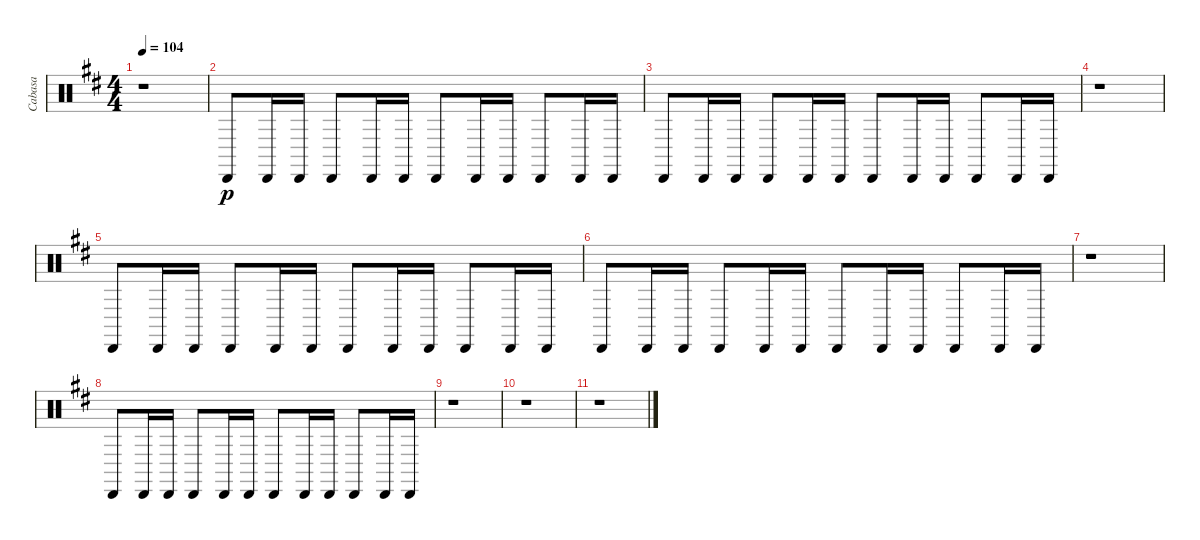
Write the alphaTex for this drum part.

\track ("Cabasa" "Cabasa") {instrument percussion}
\staff {score}
\articulation defaults
\ts (4 4)
\tempo 104
\clef neutral
\ks bminor
r.1{dy p} |
"Cabasa (hit)".8 "Cabasa (hit)".16 "Cabasa (hit)".16 "Cabasa (hit)".8 "Cabasa (hit)".16 "Cabasa (hit)".16 "Cabasa (hit)".8 "Cabasa (hit)".16 "Cabasa (hit)".16 "Cabasa (hit)".8 "Cabasa (hit)".16 "Cabasa (hit)".16 |
"Cabasa (hit)".8 "Cabasa (hit)".16 "Cabasa (hit)".16 "Cabasa (hit)".8 "Cabasa (hit)".16 "Cabasa (hit)".16 "Cabasa (hit)".8 "Cabasa (hit)".16 "Cabasa (hit)".16 "Cabasa (hit)".8 "Cabasa (hit)".16 "Cabasa (hit)".16 |
r.1 |
"Cabasa (hit)".8 "Cabasa (hit)".16 "Cabasa (hit)".16 "Cabasa (hit)".8 "Cabasa (hit)".16 "Cabasa (hit)".16 "Cabasa (hit)".8 "Cabasa (hit)".16 "Cabasa (hit)".16 "Cabasa (hit)".8 "Cabasa (hit)".16 "Cabasa (hit)".16 |
"Cabasa (hit)".8 "Cabasa (hit)".16 "Cabasa (hit)".16 "Cabasa (hit)".8 "Cabasa (hit)".16 "Cabasa (hit)".16 "Cabasa (hit)".8 "Cabasa (hit)".16 "Cabasa (hit)".16 "Cabasa (hit)".8 "Cabasa (hit)".16 "Cabasa (hit)".16 |
r.1 |
"Cabasa (hit)".8 "Cabasa (hit)".16 "Cabasa (hit)".16 "Cabasa (hit)".8 "Cabasa (hit)".16 "Cabasa (hit)".16 "Cabasa (hit)".8 "Cabasa (hit)".16 "Cabasa (hit)".16 "Cabasa (hit)".8 "Cabasa (hit)".16 "Cabasa (hit)".16 |
r.1 |
r.1 |
r.1
